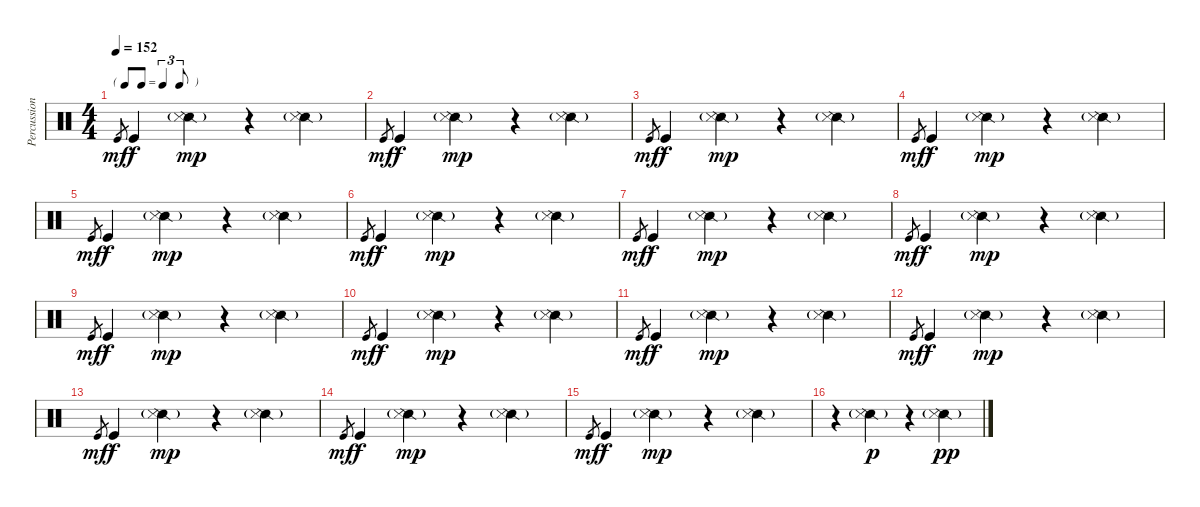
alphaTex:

\track ("Percussion" "Percussion") {instrument percussion}
\staff {score}
\articulation defaults
\ts (4 4)
\tf triplet8th
\tempo 152
\clef neutral
\ks c "Kick (hit)".8{gr dy mf} "Kick (hit)".4{dy f}
("Snare (side stick) 2"{g} "Snare (side stick) 3").4{dy mp} r.4 ("Snare (side stick) 2"{g} "Snare (side stick) 3").4 |
"Kick (hit)".8{gr dy mf} "Kick (hit)".4{dy f} ("Snare (side stick) 2"{g} "Snare (side stick) 3").4{dy mp} r.4 ("Snare (side stick) 2"{g} "Snare (side stick) 3").4 |
"Kick (hit)".8{gr dy mf} "Kick (hit)".4{dy f} ("Snare (side stick) 2"{g} "Snare (side stick) 3").4{dy mp} r.4 ("Snare (side stick) 2"{g} "Snare (side stick) 3").4 |
"Kick (hit)".8{gr dy mf} "Kick (hit)".4{dy f} ("Snare (side stick) 2"{g} "Snare (side stick) 3").4{dy mp} r.4 ("Snare (side stick) 2"{g} "Snare (side stick) 3").4 |
"Kick (hit)".8{gr dy mf} "Kick (hit)".4{dy f} ("Snare (side stick) 2"{g} "Snare (side stick) 3").4{dy mp} r.4 ("Snare (side stick) 2"{g} "Snare (side stick) 3").4 |
"Kick (hit)".8{gr dy mf} "Kick (hit)".4{dy f} ("Snare (side stick) 2"{g} "Snare (side stick) 3").4{dy mp} r.4 ("Snare (side stick) 2"{g} "Snare (side stick) 3").4 |
"Kick (hit)".8{gr dy mf} "Kick (hit)".4{dy f} ("Snare (side stick) 2"{g} "Snare (side stick) 3").4{dy mp} r.4 ("Snare (side stick) 2"{g} "Snare (side stick) 3").4 |
"Kick (hit)".8{gr dy mf} "Kick (hit)".4{dy f} ("Snare (side stick) 2"{g} "Snare (side stick) 3").4{dy mp} r.4 ("Snare (side stick) 2"{g} "Snare (side stick) 3").4 |
"Kick (hit)".8{gr dy mf} "Kick (hit)".4{dy f} ("Snare (side stick) 2"{g} "Snare (side stick) 3").4{dy mp} r.4 ("Snare (side stick) 2"{g} "Snare (side stick) 3").4 |
"Kick (hit)".8{gr dy mf} "Kick (hit)".4{dy f} ("Snare (side stick) 2"{g} "Snare (side stick) 3").4{dy mp} r.4 ("Snare (side stick) 2"{g} "Snare (side stick) 3").4 |
"Kick (hit)".8{gr dy mf} "Kick (hit)".4{dy f} ("Snare (side stick) 2"{g} "Snare (side stick) 3").4{dy mp} r.4 ("Snare (side stick) 2"{g} "Snare (side stick) 3").4 |
"Kick (hit)".8{gr dy mf} "Kick (hit)".4{dy f} ("Snare (side stick) 2"{g} "Snare (side stick) 3").4{dy mp} r.4 ("Snare (side stick) 2"{g} "Snare (side stick) 3").4 |
"Kick (hit)".8{gr dy mf} "Kick (hit)".4{dy f} ("Snare (side stick) 2"{g} "Snare (side stick) 3").4{dy mp} r.4 ("Snare (side stick) 2"{g} "Snare (side stick) 3").4 |
"Kick (hit)".8{gr dy mf} "Kick (hit)".4{dy f} ("Snare (side stick) 2"{g} "Snare (side stick) 3").4{dy mp} r.4 ("Snare (side stick) 2"{g} "Snare (side stick) 3").4 |
"Kick (hit)".8{gr dy mf} "Kick (hit)".4{dy f volume 0} ("Snare (side stick) 2"{g} "Snare (side stick) 3").4{dy mp} r.4 ("Snare (side stick) 2"{g} "Snare (side stick) 3").4 |
r.4 ("Snare (side stick) 2"{g} "Snare (side stick) 3").4{dy p} r.4 ("Snare (side stick) 2"{g} "Snare (side stick) 3").4{dy pp}
